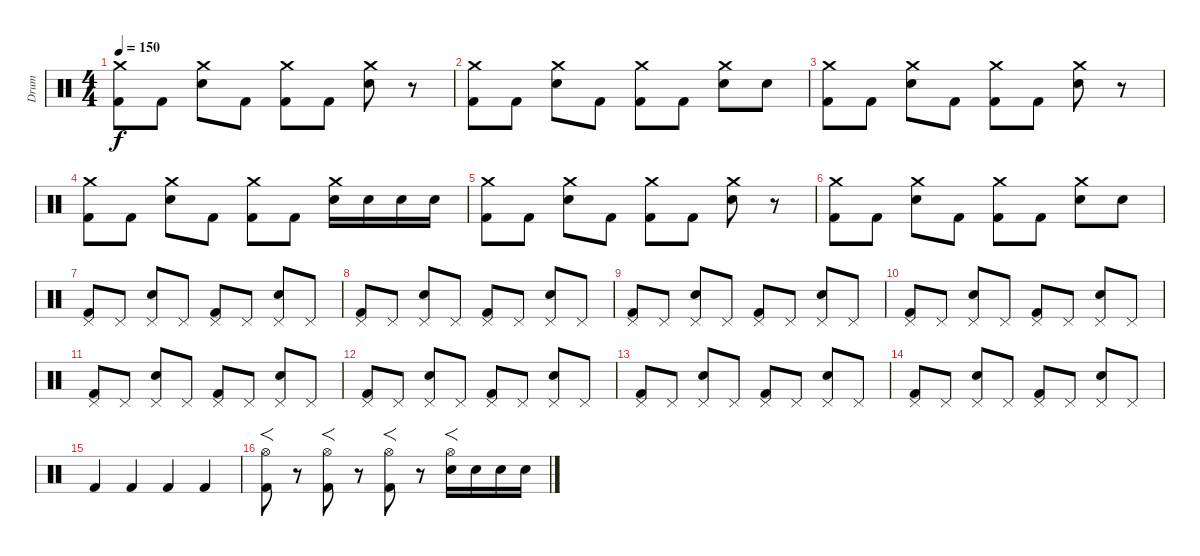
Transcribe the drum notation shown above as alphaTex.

\track ("Drum" "Drum") {instrument percussion}
\staff {score}
\articulation defaults
\ts (4 4)
\tempo 150
\clef neutral
\ks c
("Crash medium (hit)" "Kick (hit) 2").8{dy f} "Kick (hit) 2".8 ("Crash medium (hit)" "Electric Snare (hit)").8 "Kick (hit) 2".8 ("Crash medium (hit)" "Kick (hit) 2").8 "Kick (hit) 2".8 ("Crash medium (hit)" "Electric Snare (hit)").8 r.8 |
("Crash medium (hit)" "Kick (hit) 2").8 "Kick (hit) 2".8 ("Crash medium (hit)" "Electric Snare (hit)").8 "Kick (hit) 2".8 ("Crash medium (hit)" "Kick (hit) 2").8 "Kick (hit) 2".8 ("Crash medium (hit)" "Electric Snare (hit)").8 "Electric Snare (hit)".8 |
("Crash medium (hit)" "Kick (hit) 2").8 "Kick (hit) 2".8 ("Crash medium (hit)" "Electric Snare (hit)").8 "Kick (hit) 2".8 ("Crash medium (hit)" "Kick (hit) 2").8 "Kick (hit) 2".8 ("Crash medium (hit)" "Electric Snare (hit)").8 r.8 |
("Crash medium (hit)" "Kick (hit) 2").8 "Kick (hit) 2".8 ("Crash medium (hit)" "Electric Snare (hit)").8 "Kick (hit) 2".8 ("Crash medium (hit)" "Kick (hit) 2").8 "Kick (hit) 2".8 ("Crash medium (hit)" "Electric Snare (hit)").16 "Electric Snare (hit)".16 "Electric Snare (hit)".16 "Electric Snare (hit)".16 |
("Crash medium (hit)" "Kick (hit) 2").8 "Kick (hit) 2".8 ("Crash medium (hit)" "Electric Snare (hit)").8 "Kick (hit) 2".8 ("Crash medium (hit)" "Kick (hit) 2").8 "Kick (hit) 2".8 ("Crash medium (hit)" "Electric Snare (hit)").8 r.8 |
("Crash medium (hit)" "Kick (hit) 2").8 "Kick (hit) 2".8 ("Crash medium (hit)" "Electric Snare (hit)").8 "Kick (hit) 2".8 ("Crash medium (hit)" "Kick (hit) 2").8 "Kick (hit) 2".8 ("Crash medium (hit)" "Electric Snare (hit)").8 "Electric Snare (hit)".8 |
("Pedal Hi-Hat (hit)" "Kick (hit) 2").8 "Pedal Hi-Hat (hit)".8 ("Pedal Hi-Hat (hit)" "Electric Snare (hit)").8 "Pedal Hi-Hat (hit)".8 ("Pedal Hi-Hat (hit)" "Kick (hit) 2").8 "Pedal Hi-Hat (hit)".8 ("Pedal Hi-Hat (hit)" "Electric Snare (hit)").8 "Pedal Hi-Hat (hit)".8 |
("Pedal Hi-Hat (hit)" "Kick (hit) 2").8 "Pedal Hi-Hat (hit)".8 ("Pedal Hi-Hat (hit)" "Electric Snare (hit)").8 "Pedal Hi-Hat (hit)".8 ("Pedal Hi-Hat (hit)" "Kick (hit) 2").8 "Pedal Hi-Hat (hit)".8 ("Pedal Hi-Hat (hit)" "Electric Snare (hit)").8 "Pedal Hi-Hat (hit)".8 |
("Pedal Hi-Hat (hit)" "Kick (hit) 2").8 "Pedal Hi-Hat (hit)".8 ("Pedal Hi-Hat (hit)" "Electric Snare (hit)").8 "Pedal Hi-Hat (hit)".8 ("Pedal Hi-Hat (hit)" "Kick (hit) 2").8 "Pedal Hi-Hat (hit)".8 ("Pedal Hi-Hat (hit)" "Electric Snare (hit)").8 "Pedal Hi-Hat (hit)".8 |
("Pedal Hi-Hat (hit)" "Kick (hit) 2").8 "Pedal Hi-Hat (hit)".8 ("Pedal Hi-Hat (hit)" "Electric Snare (hit)").8 "Pedal Hi-Hat (hit)".8 ("Pedal Hi-Hat (hit)" "Kick (hit) 2").8 "Pedal Hi-Hat (hit)".8 ("Pedal Hi-Hat (hit)" "Electric Snare (hit)").8 "Pedal Hi-Hat (hit)".8 |
("Pedal Hi-Hat (hit)" "Kick (hit) 2").8 "Pedal Hi-Hat (hit)".8 ("Pedal Hi-Hat (hit)" "Electric Snare (hit)").8 "Pedal Hi-Hat (hit)".8 ("Pedal Hi-Hat (hit)" "Kick (hit) 2").8 "Pedal Hi-Hat (hit)".8 ("Pedal Hi-Hat (hit)" "Electric Snare (hit)").8 "Pedal Hi-Hat (hit)".8 |
("Pedal Hi-Hat (hit)" "Kick (hit) 2").8 "Pedal Hi-Hat (hit)".8 ("Pedal Hi-Hat (hit)" "Electric Snare (hit)").8 "Pedal Hi-Hat (hit)".8 ("Pedal Hi-Hat (hit)" "Kick (hit) 2").8 "Pedal Hi-Hat (hit)".8 ("Pedal Hi-Hat (hit)" "Electric Snare (hit)").8 "Pedal Hi-Hat (hit)".8 |
("Pedal Hi-Hat (hit)" "Kick (hit) 2").8 "Pedal Hi-Hat (hit)".8 ("Pedal Hi-Hat (hit)" "Electric Snare (hit)").8 "Pedal Hi-Hat (hit)".8 ("Pedal Hi-Hat (hit)" "Kick (hit) 2").8 "Pedal Hi-Hat (hit)".8 ("Pedal Hi-Hat (hit)" "Electric Snare (hit)").8 "Pedal Hi-Hat (hit)".8 |
("Pedal Hi-Hat (hit)" "Kick (hit) 2").8 "Pedal Hi-Hat (hit)".8 ("Pedal Hi-Hat (hit)" "Electric Snare (hit)").8 "Pedal Hi-Hat (hit)".8 ("Pedal Hi-Hat (hit)" "Kick (hit) 2").8 "Pedal Hi-Hat (hit)".8 ("Pedal Hi-Hat (hit)" "Electric Snare (hit)").8 "Pedal Hi-Hat (hit)".8 |
"Kick (hit) 2".4 "Kick (hit) 2".4 "Kick (hit) 2".4 "Kick (hit) 2".4 |
("Hi-Hat (open)" "Kick (hit) 2").8{f} r.8 ("Hi-Hat (open)" "Kick (hit) 2").8{f} r.8 ("Hi-Hat (open)" "Kick (hit) 2").8{f} r.8 ("Hi-Hat (open)" "Electric Snare (hit)").16{f} "Electric Snare (hit)".16 "Electric Snare (hit)".16 "Electric Snare (hit)".16
